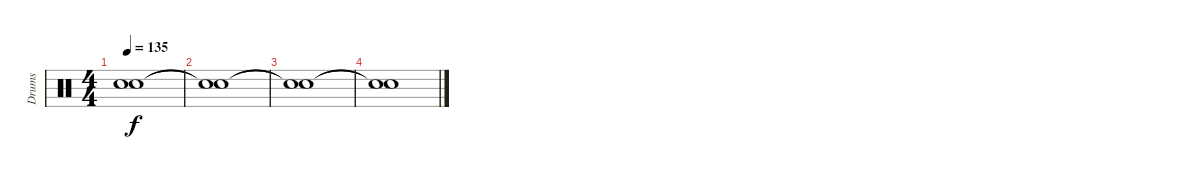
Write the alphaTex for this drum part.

\track ("Drums" "Drums") {instrument percussion}
\staff {score}
\articulation defaults
\ts (4 4)
\tempo 135
\clef neutral
\ks c
("Snare (hit)"{t} "Snare (hit)"{t}).1{dy f} |
("Snare (hit)"{t} "Snare (hit)"{t}).1 |
("Snare (hit)"{t} "Snare (hit)"{t}).1 |
("Snare (hit)"{t} "Snare (hit)"{t}).1
